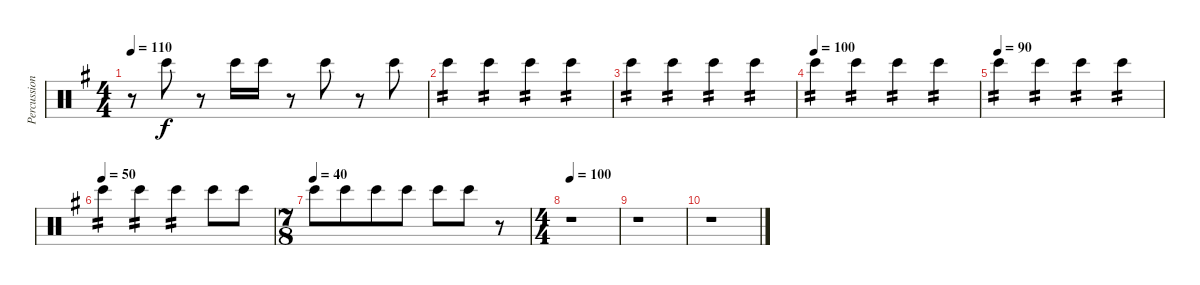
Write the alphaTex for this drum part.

\track ("Percussion" "Percussion") {instrument percussion}
\staff {score}
\articulation defaults
\ts (4 4)
\tempo 110
\clef neutral
\ks g
r.8{dy f} "Bongo High (hit)".8 r.8 "Bongo High (hit)".16 "Bongo High (hit)".16 r.8 "Bongo High (hit)".8 r.8 "Bongo High (hit)".8 |
"Bongo High (hit)".4{tp 2} "Bongo High (hit)".4{tp 2} "Bongo High (hit)".4{tp 2} "Bongo High (hit)".4{tp 2} |
"Bongo High (hit)".4{tp 2} "Bongo High (hit)".4{tp 2} "Bongo High (hit)".4{tp 2} "Bongo High (hit)".4{tp 2} |
\tempo (100)
"Bongo High (hit)".4{tp 2} "Bongo High (hit)".4{tp 2} "Bongo High (hit)".4{tp 2} "Bongo High (hit)".4{tp 2} |
\tempo (90)
"Bongo High (hit)".4{tp 2} "Bongo High (hit)".4{tp 2} "Bongo High (hit)".4{tp 2} "Bongo High (hit)".4{tp 2} |
\tempo (50)
"Bongo High (hit)".4{tp 2} "Bongo High (hit)".4{tp 2} "Bongo High (hit)".4{tp 2} "Bongo High (hit)".8 "Bongo High (hit)".8 |
\ts (7 8)
\tempo (40)
"Bongo High (hit)".8 "Bongo High (hit)".8 "Bongo High (hit)".8 "Bongo High (hit)".8 "Bongo High (hit)".8 "Bongo High (hit)".8 r.8 |
\ts (4 4)
\tempo 100
r.1 |
r.1 |
r.1
